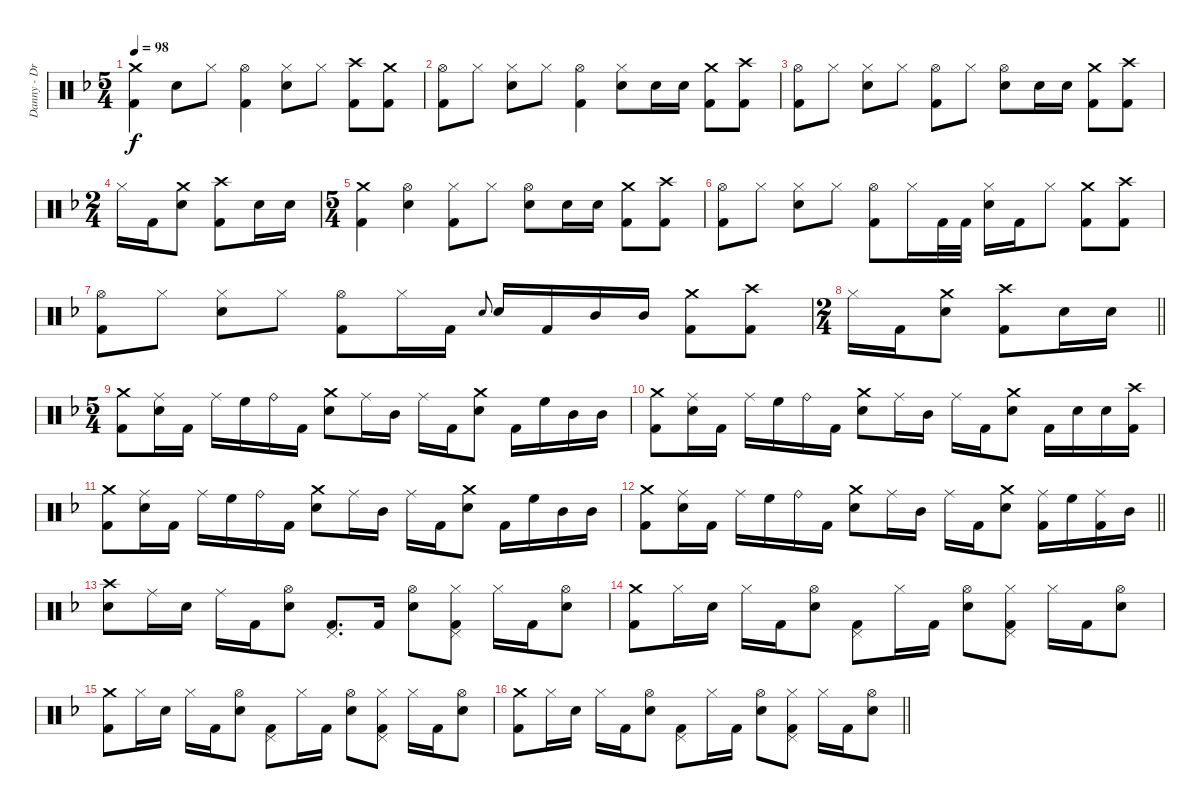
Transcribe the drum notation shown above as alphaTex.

\track ("Danny - Drums" "Danny - Dr") {instrument percussion}
\staff {score}
\articulation defaults
\ts (5 4)
\tempo 98
\clef neutral
\ks dminor
("Crash medium (hit)" "Kick (hit) 2").4{dy f volume 16} "Electric Snare (hit)".8 "Hi-Hat (closed)".8 ("Hi-Hat (open)" "Kick (hit) 2").4 ("Hi-Hat (closed)" "Electric Snare (hit)").8 "Hi-Hat (closed)".8{beam split} ("Crash high (hit)" "Kick (hit) 2").8 ("Crash medium (hit)" "Kick (hit) 2").8 |
("Hi-Hat (open)" "Kick (hit) 2").8 "Hi-Hat (closed)".8 ("Hi-Hat (closed)" "Electric Snare (hit)").8 "Hi-Hat (closed)".8 ("Hi-Hat (open)" "Kick (hit) 2").4 ("Hi-Hat (closed)" "Electric Snare (hit)").8 "Electric Snare (hit)".16 "Electric Snare (hit)".16 ("Crash medium (hit)" "Kick (hit) 2").8 ("Crash high (hit)" "Kick (hit) 2").8 |
("Hi-Hat (open)" "Kick (hit) 2").8 "Hi-Hat (closed)".8{beam split} ("Hi-Hat (closed)" "Electric Snare (hit)").8 "Hi-Hat (closed)".8{beam split} ("Hi-Hat (open)" "Kick (hit) 2").8 "Hi-Hat (closed)".8 ("Hi-Hat (open)" "Electric Snare (hit)").8 "Electric Snare (hit)".16 "Electric Snare (hit)".16 ("Crash medium (hit)" "Kick (hit) 2").8 ("Crash high (hit)" "Kick (hit) 2").8 |
\ts (2 4)
"Hi-Hat (closed)".16 "Kick (hit) 2".16 ("Crash medium (hit)" "Electric Snare (hit)").8 ("Crash high (hit)" "Kick (hit) 2").8 "Electric Snare (hit)".16 "Electric Snare (hit)".16 |
\ts (5 4)
("Crash medium (hit)" "Kick (hit) 2").4 ("Hi-Hat (open)" "Electric Snare (hit)").4 ("Hi-Hat (closed)" "Kick (hit) 2").8 "Hi-Hat (closed)".8 ("Hi-Hat (open)" "Electric Snare (hit)").8 "Electric Snare (hit)".16 "Electric Snare (hit)".16 ("Crash medium (hit)" "Kick (hit) 2").8 ("Crash high (hit)" "Kick (hit) 2").8 |
("Hi-Hat (open)" "Kick (hit) 2").8 "Hi-Hat (closed)".8 ("Hi-Hat (closed)" "Electric Snare (hit)").8 "Hi-Hat (closed)".8 ("Hi-Hat (open)" "Kick (hit) 2").8 "Hi-Hat (closed)".16 "Kick (hit) 2".32 "Kick (hit) 2".32 ("Hi-Hat (closed)" "Electric Snare (hit)").16 "Kick (hit) 2".16 "Hi-Hat (closed)".8 ("Crash medium (hit)" "Kick (hit) 2").8 ("Crash high (hit)" "Kick (hit) 2").8 |
("Hi-Hat (open)" "Kick (hit) 2").8 "Hi-Hat (closed)".8 ("Hi-Hat (closed)" "Electric Snare (hit)").8 "Hi-Hat (closed)".8 ("Hi-Hat (open)" "Kick (hit) 2").8 "Hi-Hat (closed)".16 "Kick (hit) 2".16 "Electric Snare (hit)".8{gr onbeat} "Electric Snare (hit)".16 "Kick (hit) 2".16 "Mid Tom (hit)".16 "Mid Tom (hit)".16 ("Crash medium (hit)" "Kick (hit) 2").8 ("Crash high (hit)" "Kick (hit) 2").8 |
\ts (2 4)
\barLineRight lightlight "Hi-Hat (closed)".16 "Kick (hit) 2".16
("Crash medium (hit)" "Electric Snare (hit)").8 ("Crash high (hit)" "Kick (hit) 2").8 "Electric Snare (hit)".16 "Electric Snare (hit)".16 |
\ts (5 4)
("Crash medium (hit)" "Kick (hit) 2").8{volume 13} ("Ride (middle)" "Electric Snare (hit)").16 "Kick (hit) 2".16 "Ride (middle)".16 "High Floor Tom (hit)".16 "Ride (bell)".16 "Kick (hit) 2".16 ("Crash medium (hit)" "Electric Snare (hit)").8 "Ride (middle)".16 "Mid Tom (hit)".16 "Ride (middle)".16 "Kick (hit) 2".16 ("Crash medium (hit)" "Electric Snare (hit)").8 "Kick (hit) 2".16 "High Floor Tom (hit)".16 "Mid Tom (hit)".16 "Mid Tom (hit)".16 |
("Crash medium (hit)" "Kick (hit) 2").8 ("Ride (middle)" "Electric Snare (hit)").16 "Kick (hit) 2".16 "Ride (middle)".16 "High Floor Tom (hit)".16 "Ride (bell)".16 "Kick (hit) 2".16 ("Crash medium (hit)" "Electric Snare (hit)").8 "Ride (middle)".16 "Mid Tom (hit)".16 "Ride (middle)".16 "Kick (hit) 2".16 ("Crash medium (hit)" "Electric Snare (hit)").8 "Kick (hit) 2".16 "Electric Snare (hit)".16 "Electric Snare (hit)".16 ("Crash high (hit)" "Kick (hit) 2").16 |
("Crash medium (hit)" "Kick (hit) 2").8 ("Ride (middle)" "Electric Snare (hit)").16 "Kick (hit) 2".16 "Ride (middle)".16 "High Floor Tom (hit)".16 "Ride (bell)".16 "Kick (hit) 2".16 ("Crash medium (hit)" "Electric Snare (hit)").8 "Ride (middle)".16 "Mid Tom (hit)".16 "Ride (middle)".16 "Kick (hit) 2".16 ("Crash medium (hit)" "Electric Snare (hit)").8 "Kick (hit) 2".16 "High Floor Tom (hit)".16 "Mid Tom (hit)".16 "Mid Tom (hit)".16 |
\barLineRight lightlight
("Crash medium (hit)" "Kick (hit) 2").8 ("Ride (middle)" "Electric Snare (hit)").16 "Kick (hit) 2".16 "Ride (middle)".16 "High Floor Tom (hit)".16 "Ride (bell)".16 "Kick (hit) 2".16 ("Crash medium (hit)" "Electric Snare (hit)").8 "Ride (middle)".16 "Mid Tom (hit)".16 "Ride (middle)".16 "Kick (hit) 2".16 ("Crash medium (hit)" "Electric Snare (hit)").8 ("Ride (middle)" "Kick (hit) 2").16 "High Floor Tom (hit)".16 ("Ride (middle)" "Kick (hit) 2").16 "Mid Tom (hit)".16 |
("Crash high (hit)" "Electric Snare (hit)").8{volume 13} "Ride (middle)".16 "Electric Snare (hit)".16 "Ride (middle)".16 "Kick (hit) 2".16 ("Hi-Hat (open)" "Electric Snare (hit)").8 ("Pedal Hi-Hat (hit)" "Kick (hit) 2").8{d} "Kick (hit) 2".16 ("Hi-Hat (open)" "Electric Snare (hit)").8 ("Hi-Hat (closed)" "Pedal Hi-Hat (hit)" "Kick (hit) 2").8 "Hi-Hat (closed)".16 "Kick (hit) 2".16 ("Hi-Hat (open)" "Electric Snare (hit)").8 |
("Crash medium (hit)" "Kick (hit) 2").8 "Hi-Hat (closed)".16 "Electric Snare (hit)".16 "Hi-Hat (closed)".16 "Kick (hit) 2".16 ("Hi-Hat (open)" "Electric Snare (hit)").8 ("Pedal Hi-Hat (hit)" "Kick (hit) 2").8 "Hi-Hat (closed)".16 "Kick (hit) 2".16 ("Hi-Hat (open)" "Electric Snare (hit)").8 ("Hi-Hat (closed)" "Pedal Hi-Hat (hit)" "Kick (hit) 2").8 "Hi-Hat (closed)".16 "Kick (hit) 2".16 ("Hi-Hat (open)" "Electric Snare (hit)").8 |
("Crash medium (hit)" "Kick (hit) 2").8 "Hi-Hat (closed)".16 "Electric Snare (hit)".16 "Hi-Hat (closed)".16 "Kick (hit) 2".16 ("Hi-Hat (open)" "Electric Snare (hit)").8 ("Pedal Hi-Hat (hit)" "Kick (hit) 2").8 "Hi-Hat (closed)".16 "Kick (hit) 2".16 ("Hi-Hat (open)" "Electric Snare (hit)").8 ("Hi-Hat (closed)" "Pedal Hi-Hat (hit)" "Kick (hit) 2").8 "Hi-Hat (closed)".16 "Kick (hit) 2".16 ("Hi-Hat (open)" "Electric Snare (hit)").8 |
\barLineRight lightlight
("Crash medium (hit)" "Kick (hit) 2").8 "Hi-Hat (closed)".16 "Electric Snare (hit)".16 "Hi-Hat (closed)".16 "Kick (hit) 2".16 ("Hi-Hat (open)" "Electric Snare (hit)").8 ("Pedal Hi-Hat (hit)" "Kick (hit) 2").8 "Hi-Hat (closed)".16 "Kick (hit) 2".16 ("Hi-Hat (open)" "Electric Snare (hit)").8 ("Hi-Hat (closed)" "Pedal Hi-Hat (hit)" "Kick (hit) 2").8 "Hi-Hat (closed)".16 "Kick (hit) 2".16 ("Hi-Hat (open)" "Electric Snare (hit)").8
